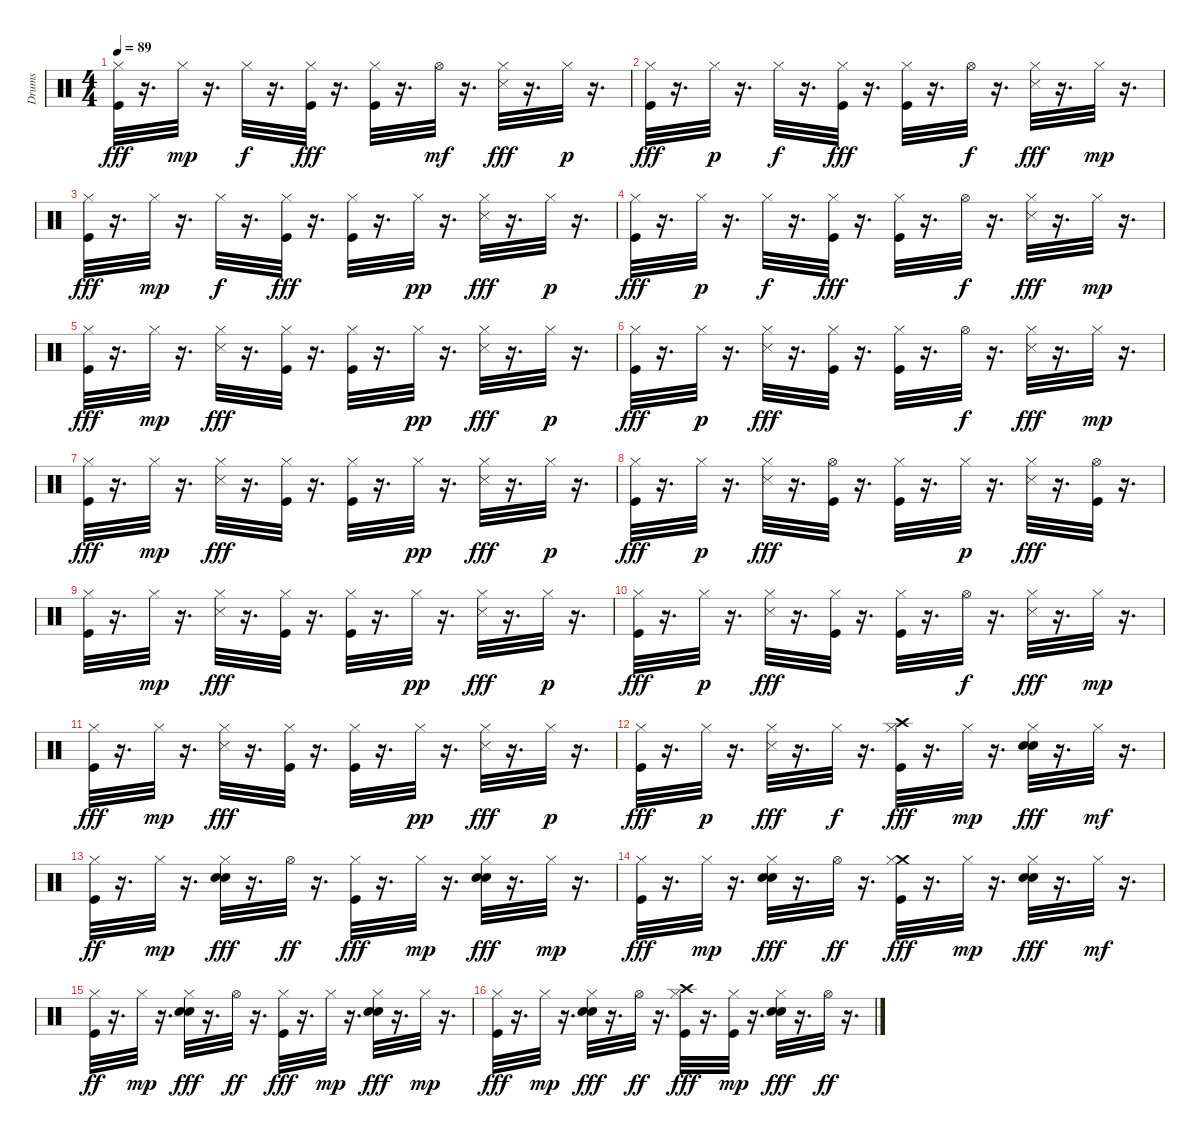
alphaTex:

\track ("Drums" "Drums") {instrument percussion}
\staff {score}
\articulation defaults
\ts (4 4)
\tempo 89
\clef neutral
\ks c
("Hi-Hat (closed)" "Kick (hit)").32{dy fff} r.16{d} "Hi-Hat (closed)".32{dy mp} r.16{d} "Hi-Hat (closed)".32{dy f} r.16{d} ("Hi-Hat (closed)" "Kick (hit)").32{dy fff} r.16{d} ("Hi-Hat (closed)" "Kick (hit)").32 r.16{d} "Hi-Hat (open)".32{dy mf} r.16{d} ("Hi-Hat (closed)" "Snare (side stick) 3").32{dy fff} r.16{d} "Hi-Hat (closed)".32{dy p} r.16{d} |
("Hi-Hat (closed)" "Kick (hit)").32{dy fff} r.16{d} "Hi-Hat (closed)".32{dy p} r.16{d} "Hi-Hat (closed)".32{dy f} r.16{d} ("Hi-Hat (closed)" "Kick (hit)").32{dy fff} r.16{d} ("Hi-Hat (closed)" "Kick (hit)").32 r.16{d} "Hi-Hat (open)".32{dy f} r.16{d} ("Hi-Hat (closed)" "Snare (side stick) 3").32{dy fff} r.16{d} "Hi-Hat (closed)".32{dy mp} r.16{d} |
("Hi-Hat (closed)" "Kick (hit)").32{dy fff} r.16{d} "Hi-Hat (closed)".32{dy mp} r.16{d} "Hi-Hat (closed)".32{dy f} r.16{d} ("Hi-Hat (closed)" "Kick (hit)").32{dy fff} r.16{d} ("Hi-Hat (closed)" "Kick (hit)").32 r.16{d} "Hi-Hat (closed)".32{dy pp} r.16{d} ("Hi-Hat (closed)" "Snare (side stick) 3").32{dy fff} r.16{d} "Hi-Hat (closed)".32{dy p} r.16{d} |
("Hi-Hat (closed)" "Kick (hit)").32{dy fff} r.16{d} "Hi-Hat (closed)".32{dy p} r.16{d} "Hi-Hat (closed)".32{dy f} r.16{d} ("Hi-Hat (closed)" "Kick (hit)").32{dy fff} r.16{d} ("Hi-Hat (closed)" "Kick (hit)").32 r.16{d} "Hi-Hat (open)".32{dy f} r.16{d} ("Hi-Hat (closed)" "Snare (side stick) 3").32{dy fff} r.16{d} "Hi-Hat (closed)".32{dy mp} r.16{d} |
("Hi-Hat (closed)" "Kick (hit)").32{dy fff} r.16{d} "Hi-Hat (closed)".32{dy mp} r.16{d} ("Snare (side stick) 3" "Hi-Hat (closed)").32{dy fff} r.16{d} ("Hi-Hat (closed)" "Kick (hit)").32 r.16{d} ("Hi-Hat (closed)" "Kick (hit)").32 r.16{d} "Hi-Hat (closed)".32{dy pp} r.16{d} ("Hi-Hat (closed)" "Snare (side stick) 3").32{dy fff} r.16{d} "Hi-Hat (closed)".32{dy p} r.16{d} |
("Hi-Hat (closed)" "Kick (hit)").32{dy fff} r.16{d} "Hi-Hat (closed)".32{dy p} r.16{d} ("Snare (side stick) 3" "Hi-Hat (closed)").32{dy fff} r.16{d} ("Hi-Hat (closed)" "Kick (hit)").32 r.16{d} ("Hi-Hat (closed)" "Kick (hit)").32 r.16{d} "Hi-Hat (open)".32{dy f} r.16{d} ("Hi-Hat (closed)" "Snare (side stick) 3").32{dy fff} r.16{d} "Hi-Hat (closed)".32{dy mp} r.16{d} |
("Hi-Hat (closed)" "Kick (hit)").32{dy fff} r.16{d} "Hi-Hat (closed)".32{dy mp} r.16{d} ("Snare (side stick) 3" "Hi-Hat (closed)").32{dy fff} r.16{d} ("Hi-Hat (closed)" "Kick (hit)").32 r.16{d} ("Hi-Hat (closed)" "Kick (hit)").32 r.16{d} "Hi-Hat (closed)".32{dy pp} r.16{d} ("Hi-Hat (closed)" "Snare (side stick) 3").32{dy fff} r.16{d} "Hi-Hat (closed)".32{dy p} r.16{d} |
("Hi-Hat (closed)" "Kick (hit)").32{dy fff} r.16{d} "Hi-Hat (closed)".32{dy p} r.16{d} ("Snare (side stick) 3" "Hi-Hat (closed)").32{dy fff} r.16{d} ("Hi-Hat (open)" "Kick (hit)").32 r.16{d} ("Hi-Hat (closed)" "Kick (hit)").32 r.16{d} "Hi-Hat (closed)".32{dy p} r.16{d} ("Hi-Hat (closed)" "Snare (side stick) 3").32{dy fff} r.16{d} ("Kick (hit)" "Hi-Hat (open)").32 r.16{d} |
("Hi-Hat (closed)" "Kick (hit)").32 r.16{d} "Hi-Hat (closed)".32{dy mp} r.16{d} ("Snare (side stick) 3" "Hi-Hat (closed)").32{dy fff} r.16{d} ("Hi-Hat (closed)" "Kick (hit)").32 r.16{d} ("Hi-Hat (closed)" "Kick (hit)").32 r.16{d} "Hi-Hat (closed)".32{dy pp} r.16{d} ("Hi-Hat (closed)" "Snare (side stick) 3").32{dy fff} r.16{d} "Hi-Hat (closed)".32{dy p} r.16{d} |
("Hi-Hat (closed)" "Kick (hit)").32{dy fff} r.16{d} "Hi-Hat (closed)".32{dy p} r.16{d} ("Snare (side stick) 3" "Hi-Hat (closed)").32{dy fff} r.16{d} ("Hi-Hat (closed)" "Kick (hit)").32 r.16{d} ("Hi-Hat (closed)" "Kick (hit)").32 r.16{d} "Hi-Hat (open)".32{dy f} r.16{d} ("Hi-Hat (closed)" "Snare (side stick) 3").32{dy fff} r.16{d} "Hi-Hat (closed)".32{dy mp} r.16{d} |
("Hi-Hat (closed)" "Kick (hit)").32{dy fff} r.16{d} "Hi-Hat (closed)".32{dy mp} r.16{d} ("Snare (side stick) 3" "Hi-Hat (closed)").32{dy fff} r.16{d} ("Hi-Hat (closed)" "Kick (hit)").32 r.16{d} ("Hi-Hat (closed)" "Kick (hit)").32 r.16{d} "Hi-Hat (closed)".32{dy pp} r.16{d} ("Hi-Hat (closed)" "Snare (side stick) 3").32{dy fff} r.16{d} "Hi-Hat (closed)".32{dy p} r.16{d} |
("Hi-Hat (closed)" "Kick (hit)").32{dy fff} r.16{d} "Hi-Hat (closed)".32{dy p} r.16{d} ("Snare (side stick) 3" "Hi-Hat (closed)").32{dy fff} r.16{d} "Hi-Hat (closed)".32{dy f} r.16{d} ("Crash high (hit)" "Hi-Hat (closed)" "Kick (hit)").32{dy fff} r.16{d} "Hi-Hat (closed)".32{dy mp} r.16{d} ("Electric Snare (hit)" "Hi-Hat (closed)" "Snare (hit) 2").32{dy fff} r.16{d} "Hi-Hat (closed)".32{dy mf} r.16{d} |
("Kick (hit)" "Hi-Hat (closed)").32{dy ff} r.16{d} "Hi-Hat (closed)".32{dy mp} r.16{d} ("Electric Snare (hit)" "Hi-Hat (closed)" "Snare (hit) 2").32{dy fff} r.16{d} "Hi-Hat (open)".32{dy ff} r.16{d} ("Kick (hit)" "Hi-Hat (closed)").32{dy fff} r.16{d} "Hi-Hat (closed)".32{dy mp} r.16{d} ("Electric Snare (hit)" "Hi-Hat (closed)" "Snare (hit) 2").32{dy fff} r.16{d} "Hi-Hat (closed)".32{dy mp} r.16{d} |
("Kick (hit)" "Hi-Hat (closed)").32{dy fff} r.16{d} "Hi-Hat (closed)".32{dy mp} r.16{d} ("Electric Snare (hit)" "Hi-Hat (closed)" "Snare (hit) 2").32{dy fff} r.16{d} "Hi-Hat (open)".32{dy ff} r.16{d} ("Crash medium (hit)" "Hi-Hat (closed)" "Kick (hit)").32{dy fff} r.16{d} "Hi-Hat (closed)".32{dy mp} r.16{d} ("Electric Snare (hit)" "Hi-Hat (closed)" "Snare (hit) 2").32{dy fff} r.16{d} "Hi-Hat (closed)".32{dy mf} r.16{d} |
("Kick (hit)" "Hi-Hat (closed)").32{dy ff} r.16{d} "Hi-Hat (closed)".32{dy mp} r.16{d} ("Electric Snare (hit)" "Hi-Hat (closed)" "Snare (hit) 2").32{dy fff} r.16{d} "Hi-Hat (open)".32{dy ff} r.16{d} ("Kick (hit)" "Hi-Hat (closed)").32{dy fff} r.16{d} "Hi-Hat (closed)".32{dy mp} r.16{d} ("Electric Snare (hit)" "Hi-Hat (closed)" "Snare (hit) 2").32{dy fff} r.16{d} "Hi-Hat (closed)".32{dy mp} r.16{d} |
("Kick (hit)" "Hi-Hat (closed)").32{dy fff} r.16{d} "Hi-Hat (closed)".32{dy mp} r.16{d} ("Electric Snare (hit)" "Hi-Hat (closed)" "Snare (hit) 2").32{dy fff} r.16{d} "Hi-Hat (open)".32{dy ff} r.16{d} ("Crash high (hit)" "Hi-Hat (closed)" "Kick (hit)").32{dy fff} r.16{d} ("Kick (hit)" "Hi-Hat (closed)").32{dy mp} r.16{d} ("Electric Snare (hit)" "Hi-Hat (closed)" "Snare (hit) 2").32{dy fff} r.16{d} "Hi-Hat (open)".32{dy ff} r.16{d}
